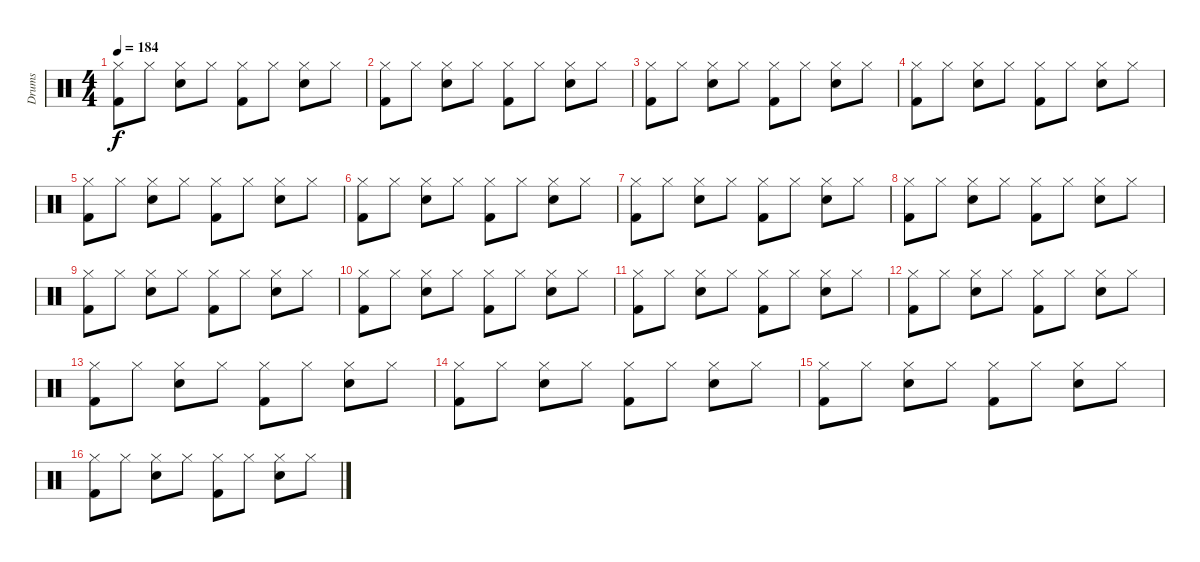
\track ("Drums" "Drums") {instrument percussion}
\staff {score}
\articulation defaults
\ts (4 4)
\tempo 184
\clef neutral
\ks c
("Hi-Hat (closed)" "Kick (hit) 2").8{dy f} "Hi-Hat (closed)".8 ("Hi-Hat (closed)" "Snare (hit) 2").8 "Hi-Hat (closed)".8 ("Hi-Hat (closed)" "Kick (hit) 2").8 "Hi-Hat (closed)".8 ("Hi-Hat (closed)" "Snare (hit) 2").8 "Hi-Hat (closed)".8 |
("Hi-Hat (closed)" "Kick (hit) 2").8 "Hi-Hat (closed)".8 ("Hi-Hat (closed)" "Snare (hit) 2").8 "Hi-Hat (closed)".8 ("Hi-Hat (closed)" "Kick (hit) 2").8 "Hi-Hat (closed)".8 ("Hi-Hat (closed)" "Snare (hit) 2").8 "Hi-Hat (closed)".8 |
("Hi-Hat (closed)" "Kick (hit) 2").8 "Hi-Hat (closed)".8 ("Hi-Hat (closed)" "Snare (hit) 2").8 "Hi-Hat (closed)".8 ("Hi-Hat (closed)" "Kick (hit) 2").8 "Hi-Hat (closed)".8 ("Hi-Hat (closed)" "Snare (hit) 2").8 "Hi-Hat (closed)".8 |
("Hi-Hat (closed)" "Kick (hit) 2").8 "Hi-Hat (closed)".8 ("Hi-Hat (closed)" "Snare (hit) 2").8 "Hi-Hat (closed)".8 ("Hi-Hat (closed)" "Kick (hit) 2").8 "Hi-Hat (closed)".8 ("Hi-Hat (closed)" "Snare (hit) 2").8 "Hi-Hat (closed)".8 |
("Hi-Hat (closed)" "Kick (hit) 2").8 "Hi-Hat (closed)".8 ("Hi-Hat (closed)" "Snare (hit) 2").8 "Hi-Hat (closed)".8 ("Hi-Hat (closed)" "Kick (hit) 2").8 "Hi-Hat (closed)".8 ("Hi-Hat (closed)" "Snare (hit) 2").8 "Hi-Hat (closed)".8 |
("Hi-Hat (closed)" "Kick (hit) 2").8 "Hi-Hat (closed)".8 ("Hi-Hat (closed)" "Snare (hit) 2").8 "Hi-Hat (closed)".8 ("Hi-Hat (closed)" "Kick (hit) 2").8 "Hi-Hat (closed)".8 ("Hi-Hat (closed)" "Snare (hit) 2").8 "Hi-Hat (closed)".8 |
("Hi-Hat (closed)" "Kick (hit) 2").8 "Hi-Hat (closed)".8 ("Hi-Hat (closed)" "Snare (hit) 2").8 "Hi-Hat (closed)".8 ("Hi-Hat (closed)" "Kick (hit) 2").8 "Hi-Hat (closed)".8 ("Hi-Hat (closed)" "Snare (hit) 2").8 "Hi-Hat (closed)".8 |
("Hi-Hat (closed)" "Kick (hit) 2").8 "Hi-Hat (closed)".8 ("Hi-Hat (closed)" "Snare (hit) 2").8 "Hi-Hat (closed)".8 ("Hi-Hat (closed)" "Kick (hit) 2").8 "Hi-Hat (closed)".8 ("Hi-Hat (closed)" "Snare (hit) 2").8 "Hi-Hat (closed)".8 |
("Hi-Hat (closed)" "Kick (hit) 2").8 "Hi-Hat (closed)".8 ("Hi-Hat (closed)" "Snare (hit) 2").8 "Hi-Hat (closed)".8 ("Hi-Hat (closed)" "Kick (hit) 2").8 "Hi-Hat (closed)".8 ("Hi-Hat (closed)" "Snare (hit) 2").8 "Hi-Hat (closed)".8 |
("Hi-Hat (closed)" "Kick (hit) 2").8 "Hi-Hat (closed)".8 ("Hi-Hat (closed)" "Snare (hit) 2").8 "Hi-Hat (closed)".8 ("Hi-Hat (closed)" "Kick (hit) 2").8 "Hi-Hat (closed)".8 ("Hi-Hat (closed)" "Snare (hit) 2").8 "Hi-Hat (closed)".8 |
("Hi-Hat (closed)" "Kick (hit) 2").8 "Hi-Hat (closed)".8 ("Hi-Hat (closed)" "Snare (hit) 2").8 "Hi-Hat (closed)".8 ("Hi-Hat (closed)" "Kick (hit) 2").8 "Hi-Hat (closed)".8 ("Hi-Hat (closed)" "Snare (hit) 2").8 "Hi-Hat (closed)".8 |
("Hi-Hat (closed)" "Kick (hit) 2").8 "Hi-Hat (closed)".8 ("Hi-Hat (closed)" "Snare (hit) 2").8 "Hi-Hat (closed)".8 ("Hi-Hat (closed)" "Kick (hit) 2").8 "Hi-Hat (closed)".8 ("Hi-Hat (closed)" "Snare (hit) 2").8 "Hi-Hat (closed)".8 |
("Hi-Hat (closed)" "Kick (hit) 2").8 "Hi-Hat (closed)".8 ("Hi-Hat (closed)" "Snare (hit) 2").8 "Hi-Hat (closed)".8 ("Hi-Hat (closed)" "Kick (hit) 2").8 "Hi-Hat (closed)".8 ("Hi-Hat (closed)" "Snare (hit) 2").8 "Hi-Hat (closed)".8 |
("Hi-Hat (closed)" "Kick (hit) 2").8 "Hi-Hat (closed)".8 ("Hi-Hat (closed)" "Snare (hit) 2").8 "Hi-Hat (closed)".8 ("Hi-Hat (closed)" "Kick (hit) 2").8 "Hi-Hat (closed)".8 ("Hi-Hat (closed)" "Snare (hit) 2").8 "Hi-Hat (closed)".8 |
("Hi-Hat (closed)" "Kick (hit) 2").8 "Hi-Hat (closed)".8 ("Hi-Hat (closed)" "Snare (hit) 2").8 "Hi-Hat (closed)".8 ("Hi-Hat (closed)" "Kick (hit) 2").8 "Hi-Hat (closed)".8 ("Hi-Hat (closed)" "Snare (hit) 2").8 "Hi-Hat (closed)".8 |
("Hi-Hat (closed)" "Kick (hit) 2").8 "Hi-Hat (closed)".8 ("Hi-Hat (closed)" "Snare (hit) 2").8 "Hi-Hat (closed)".8 ("Hi-Hat (closed)" "Kick (hit) 2").8 "Hi-Hat (closed)".8 ("Hi-Hat (closed)" "Snare (hit) 2").8 "Hi-Hat (closed)".8
